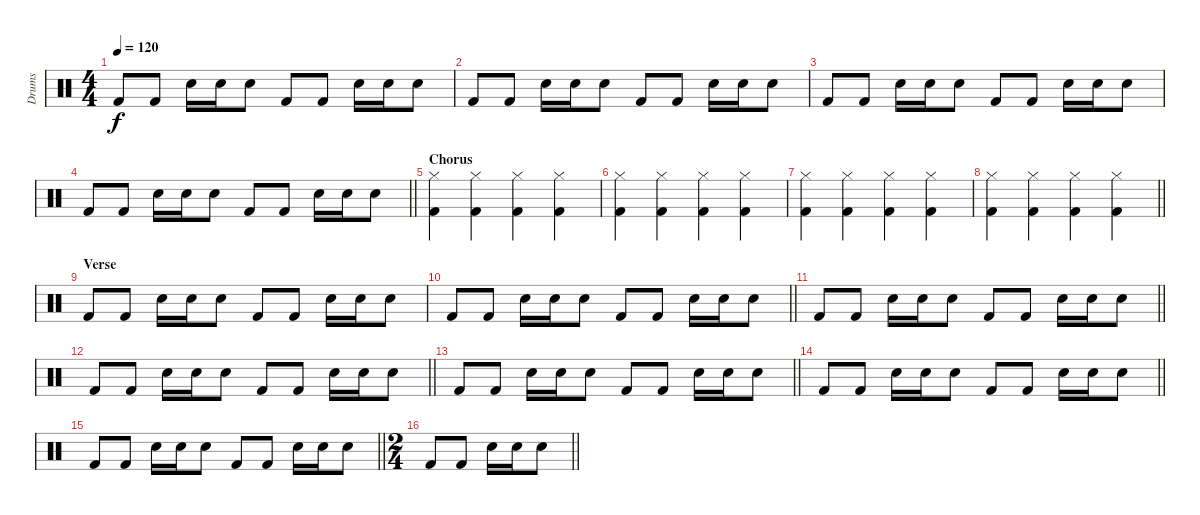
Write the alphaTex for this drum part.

\track ("Drums" "Drums") {instrument percussion}
\staff {score}
\articulation defaults
\ts (4 4)
\tempo 120
\clef neutral
\ks c "Kick (hit) 2".8{dy f} "Kick (hit) 2".8 "Snare (hit) 2".16 "Snare (hit) 2".16 "Snare (hit) 2".8 "Kick (hit) 2".8 "Kick (hit) 2".8 "Snare (hit) 2".16 "Snare (hit) 2".16 "Snare (hit) 2".8
|
"Kick (hit) 2".8 "Kick (hit) 2".8 "Snare (hit) 2".16 "Snare (hit) 2".16 "Snare (hit) 2".8 "Kick (hit) 2".8 "Kick (hit) 2".8 "Snare (hit) 2".16 "Snare (hit) 2".16 "Snare (hit) 2".8 |
"Kick (hit) 2".8 "Kick (hit) 2".8 "Snare (hit) 2".16 "Snare (hit) 2".16 "Snare (hit) 2".8 "Kick (hit) 2".8 "Kick (hit) 2".8 "Snare (hit) 2".16 "Snare (hit) 2".16 "Snare (hit) 2".8 |
\barLineRight lightlight "Kick (hit) 2".8 "Kick (hit) 2".8 "Snare (hit) 2".16 "Snare (hit) 2".16 "Snare (hit) 2".8 "Kick (hit) 2".8 "Kick (hit) 2".8 "Snare (hit) 2".16 "Snare (hit) 2".16 "Snare (hit) 2".8
|
\section ("" "Chorus")
("Hi-Hat (closed)" "Kick (hit) 2").4 ("Hi-Hat (closed)" "Kick (hit) 2").4 ("Hi-Hat (closed)" "Kick (hit) 2").4 ("Hi-Hat (closed)" "Kick (hit) 2").4 |
("Hi-Hat (closed)" "Kick (hit) 2").4 ("Hi-Hat (closed)" "Kick (hit) 2").4 ("Hi-Hat (closed)" "Kick (hit) 2").4 ("Hi-Hat (closed)" "Kick (hit) 2").4 |
("Hi-Hat (closed)" "Kick (hit) 2").4 ("Hi-Hat (closed)" "Kick (hit) 2").4 ("Hi-Hat (closed)" "Kick (hit) 2").4 ("Hi-Hat (closed)" "Kick (hit) 2").4 |
\barLineRight lightlight
("Hi-Hat (closed)" "Kick (hit) 2").4 ("Hi-Hat (closed)" "Kick (hit) 2").4 ("Hi-Hat (closed)" "Kick (hit) 2").4 ("Hi-Hat (closed)" "Kick (hit) 2").4 |
\section ("" "Verse")
"Kick (hit) 2".8 "Kick (hit) 2".8 "Snare (hit) 2".16 "Snare (hit) 2".16 "Snare (hit) 2".8 "Kick (hit) 2".8 "Kick (hit) 2".8 "Snare (hit) 2".16 "Snare (hit) 2".16 "Snare (hit) 2".8 |
\barLineRight lightlight "Kick (hit) 2".8 "Kick (hit) 2".8 "Snare (hit) 2".16 "Snare (hit) 2".16 "Snare (hit) 2".8 "Kick (hit) 2".8 "Kick (hit) 2".8 "Snare (hit) 2".16 "Snare (hit) 2".16 "Snare (hit) 2".8
|
\barLineRight lightlight "Kick (hit) 2".8 "Kick (hit) 2".8 "Snare (hit) 2".16 "Snare (hit) 2".16 "Snare (hit) 2".8 "Kick (hit) 2".8 "Kick (hit) 2".8 "Snare (hit) 2".16 "Snare (hit) 2".16 "Snare (hit) 2".8
|
\barLineRight lightlight "Kick (hit) 2".8 "Kick (hit) 2".8 "Snare (hit) 2".16 "Snare (hit) 2".16 "Snare (hit) 2".8 "Kick (hit) 2".8 "Kick (hit) 2".8 "Snare (hit) 2".16 "Snare (hit) 2".16 "Snare (hit) 2".8
|
\barLineRight lightlight "Kick (hit) 2".8 "Kick (hit) 2".8 "Snare (hit) 2".16 "Snare (hit) 2".16 "Snare (hit) 2".8 "Kick (hit) 2".8 "Kick (hit) 2".8 "Snare (hit) 2".16 "Snare (hit) 2".16 "Snare (hit) 2".8
|
\barLineRight lightlight "Kick (hit) 2".8 "Kick (hit) 2".8 "Snare (hit) 2".16 "Snare (hit) 2".16 "Snare (hit) 2".8 "Kick (hit) 2".8 "Kick (hit) 2".8 "Snare (hit) 2".16 "Snare (hit) 2".16 "Snare (hit) 2".8
|
\barLineRight lightlight "Kick (hit) 2".8 "Kick (hit) 2".8 "Snare (hit) 2".16 "Snare (hit) 2".16 "Snare (hit) 2".8 "Kick (hit) 2".8 "Kick (hit) 2".8 "Snare (hit) 2".16 "Snare (hit) 2".16 "Snare (hit) 2".8
|
\ts (2 4)
\barLineRight lightlight "Kick (hit) 2".8 "Kick (hit) 2".8 "Snare (hit) 2".16 "Snare (hit) 2".16 "Snare (hit) 2".8
